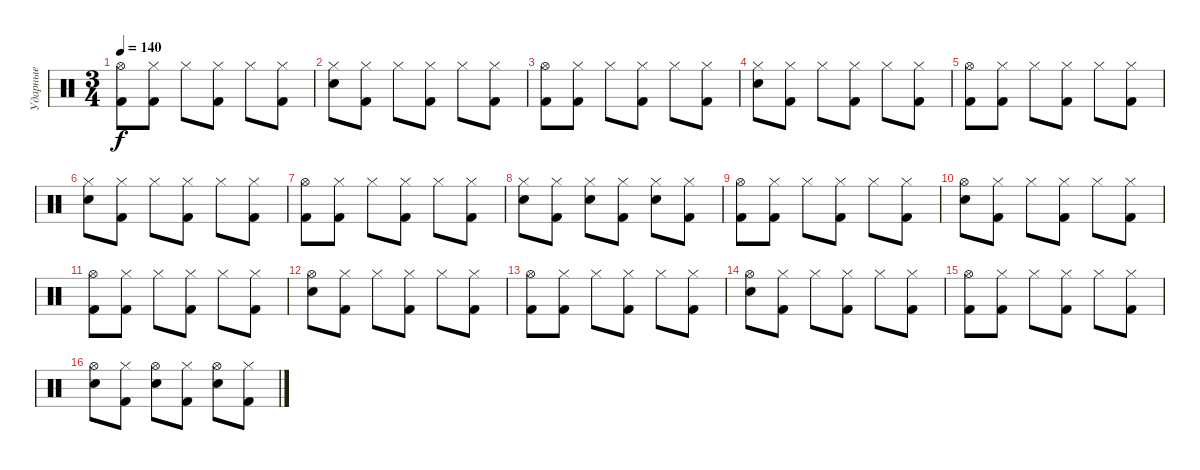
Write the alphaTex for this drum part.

\track ("Ударные" "Ударные") {instrument percussion}
\staff {score}
\articulation defaults
\ts (3 4)
\tempo 140
\clef neutral
\ks c
("Hi-Hat (open)" "Kick (hit) 2").8{dy f} ("Hi-Hat (closed)" "Kick (hit) 2").8 "Hi-Hat (closed)".8 ("Hi-Hat (closed)" "Kick (hit) 2").8 "Hi-Hat (closed)".8 ("Hi-Hat (closed)" "Kick (hit) 2").8 |
("Hi-Hat (closed)" "Electric Snare (hit)").8 ("Hi-Hat (closed)" "Kick (hit) 2").8 "Hi-Hat (closed)".8 ("Hi-Hat (closed)" "Kick (hit) 2").8 "Hi-Hat (closed)".8 ("Hi-Hat (closed)" "Kick (hit) 2").8 |
("Hi-Hat (open)" "Kick (hit) 2").8 ("Hi-Hat (closed)" "Kick (hit) 2").8 "Hi-Hat (closed)".8 ("Hi-Hat (closed)" "Kick (hit) 2").8 "Hi-Hat (closed)".8 ("Hi-Hat (closed)" "Kick (hit) 2").8 |
("Hi-Hat (closed)" "Electric Snare (hit)").8 ("Hi-Hat (closed)" "Kick (hit) 2").8 "Hi-Hat (closed)".8 ("Hi-Hat (closed)" "Kick (hit) 2").8 "Hi-Hat (closed)".8 ("Hi-Hat (closed)" "Kick (hit) 2").8 |
("Hi-Hat (open)" "Kick (hit) 2").8 ("Hi-Hat (closed)" "Kick (hit) 2").8 "Hi-Hat (closed)".8 ("Hi-Hat (closed)" "Kick (hit) 2").8 "Hi-Hat (closed)".8 ("Hi-Hat (closed)" "Kick (hit) 2").8 |
("Hi-Hat (closed)" "Electric Snare (hit)").8 ("Hi-Hat (closed)" "Kick (hit) 2").8 "Hi-Hat (closed)".8 ("Hi-Hat (closed)" "Kick (hit) 2").8 "Hi-Hat (closed)".8 ("Hi-Hat (closed)" "Kick (hit) 2").8 |
("Hi-Hat (open)" "Kick (hit) 2").8 ("Hi-Hat (closed)" "Kick (hit) 2").8 "Hi-Hat (closed)".8 ("Hi-Hat (closed)" "Kick (hit) 2").8 "Hi-Hat (closed)".8 ("Hi-Hat (closed)" "Kick (hit) 2").8 |
("Hi-Hat (closed)" "Electric Snare (hit)").8 ("Hi-Hat (closed)" "Kick (hit) 2").8 ("Hi-Hat (closed)" "Electric Snare (hit)").8 ("Hi-Hat (closed)" "Kick (hit) 2").8 ("Hi-Hat (closed)" "Electric Snare (hit)").8 ("Hi-Hat (closed)" "Kick (hit) 2").8 |
("Hi-Hat (open)" "Kick (hit) 2").8 ("Hi-Hat (closed)" "Kick (hit) 2").8 "Hi-Hat (closed)".8 ("Hi-Hat (closed)" "Kick (hit) 2").8 "Hi-Hat (closed)".8 ("Hi-Hat (closed)" "Kick (hit) 2").8 |
("Hi-Hat (open)" "Electric Snare (hit)").8 ("Hi-Hat (closed)" "Kick (hit) 2").8 "Hi-Hat (closed)".8 ("Hi-Hat (closed)" "Kick (hit) 2").8 "Hi-Hat (closed)".8 ("Hi-Hat (closed)" "Kick (hit) 2").8 |
("Hi-Hat (open)" "Kick (hit) 2").8 ("Hi-Hat (closed)" "Kick (hit) 2").8 "Hi-Hat (closed)".8 ("Hi-Hat (closed)" "Kick (hit) 2").8 "Hi-Hat (closed)".8 ("Hi-Hat (closed)" "Kick (hit) 2").8 |
("Hi-Hat (open)" "Electric Snare (hit)").8 ("Hi-Hat (closed)" "Kick (hit) 2").8 "Hi-Hat (closed)".8 ("Hi-Hat (closed)" "Kick (hit) 2").8 "Hi-Hat (closed)".8 ("Hi-Hat (closed)" "Kick (hit) 2").8 |
("Hi-Hat (open)" "Kick (hit) 2").8 ("Hi-Hat (closed)" "Kick (hit) 2").8 "Hi-Hat (closed)".8 ("Hi-Hat (closed)" "Kick (hit) 2").8 "Hi-Hat (closed)".8 ("Hi-Hat (closed)" "Kick (hit) 2").8 |
("Hi-Hat (open)" "Electric Snare (hit)").8 ("Hi-Hat (closed)" "Kick (hit) 2").8 "Hi-Hat (closed)".8 ("Hi-Hat (closed)" "Kick (hit) 2").8 "Hi-Hat (closed)".8 ("Hi-Hat (closed)" "Kick (hit) 2").8 |
("Hi-Hat (open)" "Kick (hit) 2").8 ("Hi-Hat (closed)" "Kick (hit) 2").8 "Hi-Hat (closed)".8 ("Hi-Hat (closed)" "Kick (hit) 2").8 "Hi-Hat (closed)".8 ("Hi-Hat (closed)" "Kick (hit) 2").8 |
("Hi-Hat (open)" "Electric Snare (hit)").8 ("Hi-Hat (closed)" "Kick (hit) 2").8 ("Hi-Hat (open)" "Electric Snare (hit)").8 ("Hi-Hat (closed)" "Kick (hit) 2").8 ("Hi-Hat (open)" "Electric Snare (hit)").8 ("Hi-Hat (closed)" "Kick (hit) 2").8
